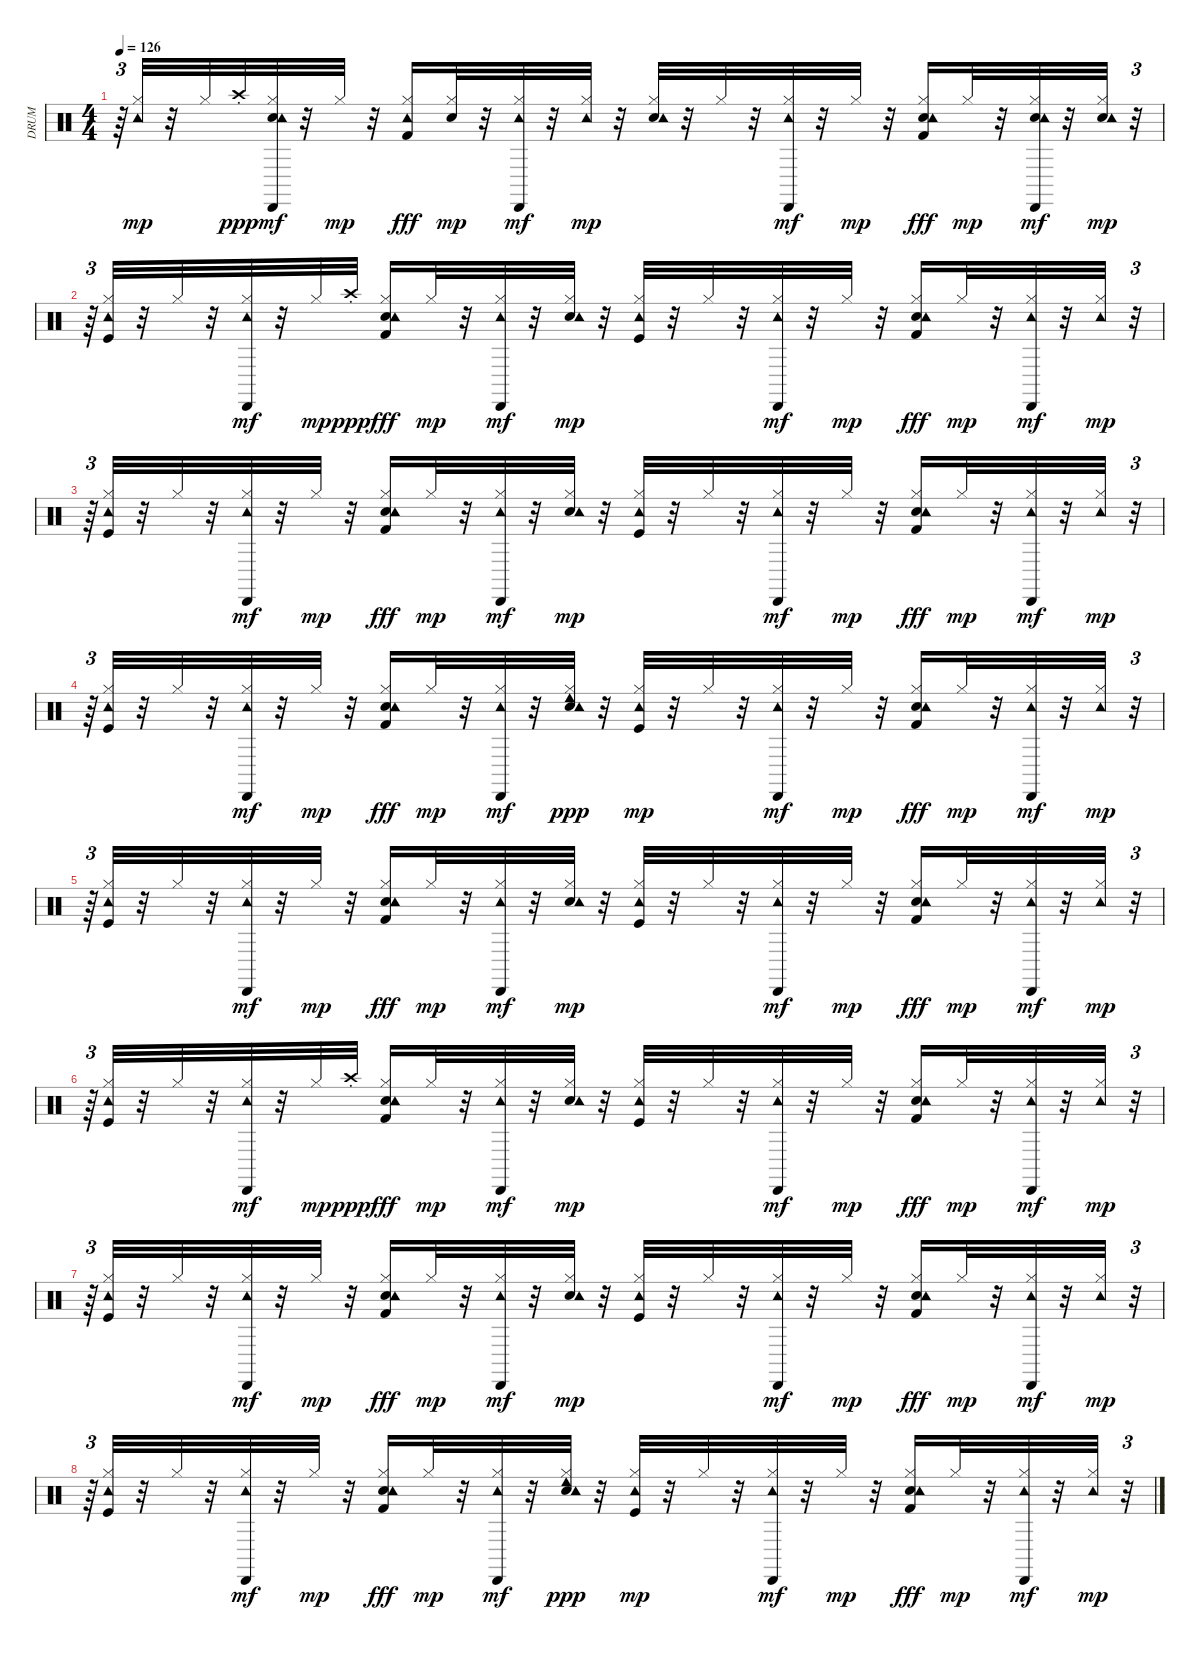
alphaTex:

\track ("DRUM" "DRUM") {instrument percussion}
\staff {score}
\articulation defaults
\ts (4 4)
\tempo 126
\clef neutral
\ks c
r.64{tu (3 2) dy mp} ("Hi-Hat (closed)" "Tambourine (hit)").32 r.32 "Hi-Hat (closed)".32 "Crash high (choke)".32{dy ppp} ("Snare (hit) 2" "Hi-Hat (closed)" "Tambourine (hit)" "Cabasa (hit)").32{dy mf} r.32 "Hi-Hat (closed)".32{dy mp} r.32 ("Hi-Hat (closed)" "Tambourine (hit)" "Kick (hit) 2").16{dy fff} ("Snare (hit) 2" "Hi-Hat (closed)").32{dy mp} r.32 ("Hi-Hat (closed)" "Tambourine (hit)" "Cabasa (hit)").32{dy mf} r.32 ("Hi-Hat (closed)" "Tambourine (hit)").32{dy mp} r.32 ("Snare (hit) 2" "Hi-Hat (closed)" "Tambourine (hit)").32 r.32 "Hi-Hat (closed)".32 r.32 ("Hi-Hat (closed)" "Tambourine (hit)" "Cabasa (hit)").32{dy mf} r.32 "Hi-Hat (closed)".32{dy mp} r.32 ("Snare (hit) 2" "Hi-Hat (closed)" "Tambourine (hit)" "Kick (hit) 2").16{dy fff} "Hi-Hat (closed)".32{dy mp} r.32 ("Snare (hit) 2" "Hi-Hat (closed)" "Tambourine (hit)" "Cabasa (hit)").32{dy mf} r.32 ("Snare (hit) 2" "Hi-Hat (closed)" "Tambourine (hit)").32{dy mp} r.32{tu (3 2)} |
r.64{tu (3 2)} ("Kick (hit)" "Hi-Hat (closed)" "Tambourine (hit)").32 r.32 "Hi-Hat (closed)".32 r.32 ("Hi-Hat (closed)" "Tambourine (hit)" "Cabasa (hit)").32{dy mf} r.32 "Hi-Hat (closed)".32{dy mp} "Crash high (choke)".32{dy ppp} ("Snare (hit) 2" "Hi-Hat (closed)" "Tambourine (hit)" "Kick (hit) 2").16{dy fff} "Hi-Hat (closed)".32{dy mp} r.32 ("Hi-Hat (closed)" "Tambourine (hit)" "Cabasa (hit)").32{dy mf} r.32 ("Snare (hit) 2" "Hi-Hat (closed)" "Tambourine (hit)").32{dy mp} r.32 ("Kick (hit)" "Hi-Hat (closed)" "Tambourine (hit)").32 r.32 "Hi-Hat (closed)".32 r.32 ("Hi-Hat (closed)" "Tambourine (hit)" "Cabasa (hit)").32{dy mf} r.32 "Hi-Hat (closed)".32{dy mp} r.32 ("Snare (hit) 2" "Hi-Hat (closed)" "Tambourine (hit)" "Kick (hit) 2").16{dy fff} "Hi-Hat (closed)".32{dy mp} r.32 ("Hi-Hat (closed)" "Tambourine (hit)" "Cabasa (hit)").32{dy mf} r.32 ("Hi-Hat (closed)" "Tambourine (hit)").32{dy mp} r.32{tu (3 2)} |
r.64{tu (3 2)} ("Kick (hit)" "Hi-Hat (closed)" "Tambourine (hit)").32 r.32 "Hi-Hat (closed)".32 r.32 ("Hi-Hat (closed)" "Tambourine (hit)" "Cabasa (hit)").32{dy mf} r.32 "Hi-Hat (closed)".32{dy mp} r.32 ("Snare (hit) 2" "Hi-Hat (closed)" "Tambourine (hit)" "Kick (hit) 2").16{dy fff} "Hi-Hat (closed)".32{dy mp} r.32 ("Hi-Hat (closed)" "Tambourine (hit)" "Cabasa (hit)").32{dy mf} r.32 ("Snare (hit) 2" "Hi-Hat (closed)" "Tambourine (hit)").32{dy mp} r.32 ("Kick (hit)" "Hi-Hat (closed)" "Tambourine (hit)").32 r.32 "Hi-Hat (closed)".32 r.32 ("Hi-Hat (closed)" "Tambourine (hit)" "Cabasa (hit)").32{dy mf} r.32 "Hi-Hat (closed)".32{dy mp} r.32 ("Snare (hit) 2" "Hi-Hat (closed)" "Tambourine (hit)" "Kick (hit) 2").16{dy fff} "Hi-Hat (closed)".32{dy mp} r.32 ("Hi-Hat (closed)" "Tambourine (hit)" "Cabasa (hit)").32{dy mf} r.32 ("Hi-Hat (closed)" "Tambourine (hit)").32{dy mp} r.32{tu (3 2)} |
r.64{tu (3 2)} ("Kick (hit)" "Hi-Hat (closed)" "Tambourine (hit)").32 r.32 "Hi-Hat (closed)".32 r.32 ("Hi-Hat (closed)" "Tambourine (hit)" "Cabasa (hit)").32{dy mf} r.32 "Hi-Hat (closed)".32{dy mp} r.32 ("Snare (hit) 2" "Hi-Hat (closed)" "Tambourine (hit)" "Kick (hit) 2").16{dy fff} "Hi-Hat (closed)".32{dy mp} r.32 ("Hi-Hat (closed)" "Tambourine (hit)" "Cabasa (hit)").32{dy mf} r.32 ("Snare (hit) 2" "Hi-Hat (closed)" "Tambourine (hit)" "Cowbell low (hit)").32{dy ppp} r.32 ("Kick (hit)" "Hi-Hat (closed)" "Tambourine (hit)").32{dy mp} r.32 "Hi-Hat (closed)".32 r.32 ("Hi-Hat (closed)" "Tambourine (hit)" "Cabasa (hit)").32{dy mf} r.32 "Hi-Hat (closed)".32{dy mp} r.32 ("Snare (hit) 2" "Hi-Hat (closed)" "Tambourine (hit)" "Kick (hit) 2").16{dy fff} "Hi-Hat (closed)".32{dy mp} r.32 ("Hi-Hat (closed)" "Tambourine (hit)" "Cabasa (hit)").32{dy mf} r.32 ("Hi-Hat (closed)" "Tambourine (hit)").32{dy mp} r.32{tu (3 2)} |
r.64{tu (3 2)} ("Kick (hit)" "Hi-Hat (closed)" "Tambourine (hit)").32 r.32 "Hi-Hat (closed)".32 r.32 ("Hi-Hat (closed)" "Tambourine (hit)" "Cabasa (hit)").32{dy mf} r.32 "Hi-Hat (closed)".32{dy mp} r.32 ("Snare (hit) 2" "Hi-Hat (closed)" "Tambourine (hit)" "Kick (hit) 2").16{dy fff} "Hi-Hat (closed)".32{dy mp} r.32 ("Hi-Hat (closed)" "Tambourine (hit)" "Cabasa (hit)").32{dy mf} r.32 ("Snare (hit) 2" "Hi-Hat (closed)" "Tambourine (hit)").32{dy mp} r.32 ("Kick (hit)" "Hi-Hat (closed)" "Tambourine (hit)").32 r.32 "Hi-Hat (closed)".32 r.32 ("Hi-Hat (closed)" "Tambourine (hit)" "Cabasa (hit)").32{dy mf} r.32 "Hi-Hat (closed)".32{dy mp} r.32 ("Snare (hit) 2" "Hi-Hat (closed)" "Tambourine (hit)" "Kick (hit) 2").16{dy fff} "Hi-Hat (closed)".32{dy mp} r.32 ("Hi-Hat (closed)" "Tambourine (hit)" "Cabasa (hit)").32{dy mf} r.32 ("Hi-Hat (closed)" "Tambourine (hit)").32{dy mp} r.32{tu (3 2)} |
r.64{tu (3 2)} ("Kick (hit)" "Hi-Hat (closed)" "Tambourine (hit)").32 r.32 "Hi-Hat (closed)".32 r.32 ("Hi-Hat (closed)" "Tambourine (hit)" "Cabasa (hit)").32{dy mf} r.32 "Hi-Hat (closed)".32{dy mp} "Crash high (choke)".32{dy ppp} ("Snare (hit) 2" "Hi-Hat (closed)" "Tambourine (hit)" "Kick (hit) 2").16{dy fff} "Hi-Hat (closed)".32{dy mp} r.32 ("Hi-Hat (closed)" "Tambourine (hit)" "Cabasa (hit)").32{dy mf} r.32 ("Snare (hit) 2" "Hi-Hat (closed)" "Tambourine (hit)").32{dy mp} r.32 ("Kick (hit)" "Hi-Hat (closed)" "Tambourine (hit)").32 r.32 "Hi-Hat (closed)".32 r.32 ("Hi-Hat (closed)" "Tambourine (hit)" "Cabasa (hit)").32{dy mf} r.32 "Hi-Hat (closed)".32{dy mp} r.32 ("Snare (hit) 2" "Hi-Hat (closed)" "Tambourine (hit)" "Kick (hit) 2").16{dy fff} "Hi-Hat (closed)".32{dy mp} r.32 ("Hi-Hat (closed)" "Tambourine (hit)" "Cabasa (hit)").32{dy mf} r.32 ("Hi-Hat (closed)" "Tambourine (hit)").32{dy mp} r.32{tu (3 2)} |
r.64{tu (3 2)} ("Kick (hit)" "Hi-Hat (closed)" "Tambourine (hit)").32 r.32 "Hi-Hat (closed)".32 r.32 ("Hi-Hat (closed)" "Tambourine (hit)" "Cabasa (hit)").32{dy mf} r.32 "Hi-Hat (closed)".32{dy mp} r.32 ("Snare (hit) 2" "Hi-Hat (closed)" "Tambourine (hit)" "Kick (hit) 2").16{dy fff} "Hi-Hat (closed)".32{dy mp} r.32 ("Hi-Hat (closed)" "Tambourine (hit)" "Cabasa (hit)").32{dy mf} r.32 ("Snare (hit) 2" "Hi-Hat (closed)" "Tambourine (hit)").32{dy mp} r.32 ("Kick (hit)" "Hi-Hat (closed)" "Tambourine (hit)").32 r.32 "Hi-Hat (closed)".32 r.32 ("Hi-Hat (closed)" "Tambourine (hit)" "Cabasa (hit)").32{dy mf} r.32 "Hi-Hat (closed)".32{dy mp} r.32 ("Snare (hit) 2" "Hi-Hat (closed)" "Tambourine (hit)" "Kick (hit) 2").16{dy fff} "Hi-Hat (closed)".32{dy mp} r.32 ("Hi-Hat (closed)" "Tambourine (hit)" "Cabasa (hit)").32{dy mf} r.32 ("Hi-Hat (closed)" "Tambourine (hit)").32{dy mp} r.32{tu (3 2)} |
r.64{tu (3 2)} ("Kick (hit)" "Hi-Hat (closed)" "Tambourine (hit)").32 r.32 "Hi-Hat (closed)".32 r.32 ("Hi-Hat (closed)" "Tambourine (hit)" "Cabasa (hit)").32{dy mf} r.32 "Hi-Hat (closed)".32{dy mp} r.32 ("Snare (hit) 2" "Hi-Hat (closed)" "Tambourine (hit)" "Kick (hit) 2").16{dy fff} "Hi-Hat (closed)".32{dy mp} r.32 ("Hi-Hat (closed)" "Tambourine (hit)" "Cabasa (hit)").32{dy mf} r.32 ("Snare (hit) 2" "Hi-Hat (closed)" "Tambourine (hit)" "Cowbell low (hit)").32{dy ppp} r.32 ("Kick (hit)" "Hi-Hat (closed)" "Tambourine (hit)").32{dy mp} r.32 "Hi-Hat (closed)".32 r.32 ("Hi-Hat (closed)" "Tambourine (hit)" "Cabasa (hit)").32{dy mf} r.32 "Hi-Hat (closed)".32{dy mp} r.32 ("Snare (hit) 2" "Hi-Hat (closed)" "Tambourine (hit)" "Kick (hit) 2").16{dy fff} "Hi-Hat (closed)".32{dy mp} r.32 ("Hi-Hat (closed)" "Tambourine (hit)" "Cabasa (hit)").32{dy mf} r.32 ("Hi-Hat (closed)" "Tambourine (hit)").32{dy mp} r.32{tu (3 2)}
